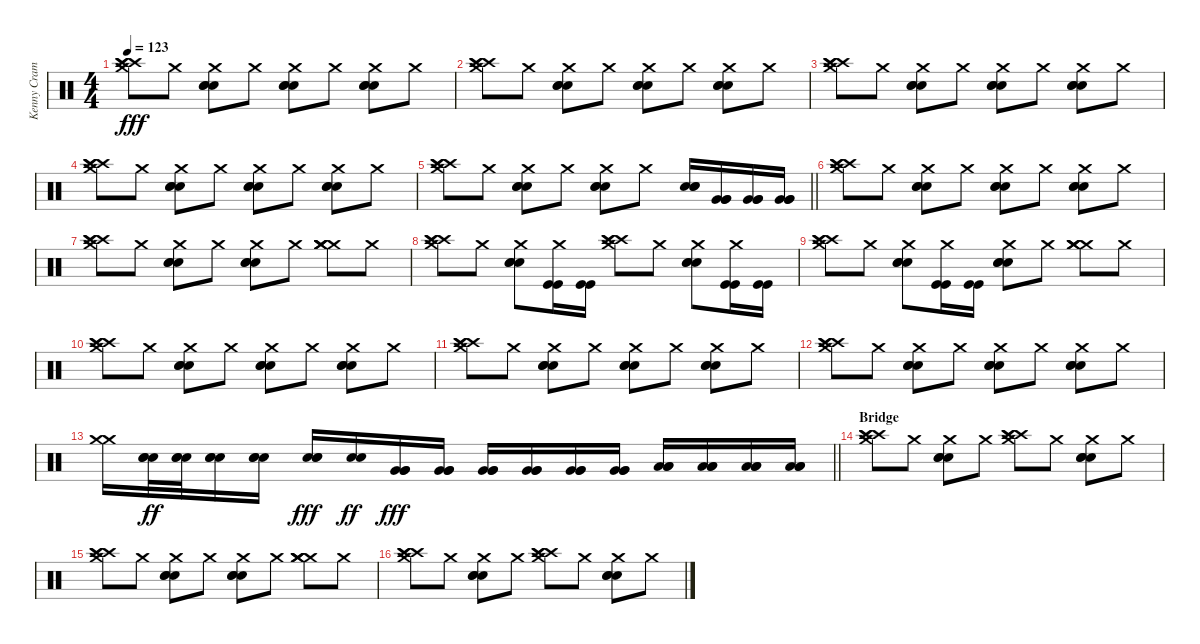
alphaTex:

\track ("Kenny Cramme - Drums" "Kenny Cram") {instrument percussion}
\staff {score}
\articulation defaults
\ts (4 4)
\tempo 123
\clef neutral
\ks c
("Crash medium (hit)" "Crash high (hit)" "Crash high (hit)" "Crash high (hit)").8{dy fff} "Crash medium (hit)".8 ("Crash medium (hit)" "Snare (hit) 2" "Snare (hit) 2" "Snare (hit) 2").8 "Crash medium (hit)".8 ("Crash medium (hit)" "Snare (hit) 2" "Snare (hit) 2" "Snare (hit) 2").8 "Crash medium (hit)".8 ("Crash medium (hit)" "Snare (hit) 2" "Snare (hit) 2" "Snare (hit) 2").8 "Crash medium (hit)".8 |
("Crash medium (hit)" "Crash high (hit)" "Crash high (hit)" "Crash high (hit)").8 "Crash medium (hit)".8 ("Crash medium (hit)" "Snare (hit) 2" "Snare (hit) 2" "Snare (hit) 2").8 "Crash medium (hit)".8 ("Crash medium (hit)" "Snare (hit) 2" "Snare (hit) 2" "Snare (hit) 2").8 "Crash medium (hit)".8 ("Crash medium (hit)" "Snare (hit) 2" "Snare (hit) 2" "Snare (hit) 2").8 "Crash medium (hit)".8 |
("Crash medium (hit)" "Crash high (hit)" "Crash high (hit)" "Crash high (hit)").8 "Crash medium (hit)".8 ("Crash medium (hit)" "Snare (hit) 2" "Snare (hit) 2" "Snare (hit) 2").8 "Crash medium (hit)".8 ("Crash medium (hit)" "Snare (hit) 2" "Snare (hit) 2" "Snare (hit) 2").8 "Crash medium (hit)".8 ("Crash medium (hit)" "Snare (hit) 2" "Snare (hit) 2" "Snare (hit) 2").8 "Crash medium (hit)".8 |
("Crash medium (hit)" "Crash high (hit)" "Crash high (hit)" "Crash high (hit)").8 "Crash medium (hit)".8 ("Crash medium (hit)" "Snare (hit) 2" "Snare (hit) 2" "Snare (hit) 2").8 "Crash medium (hit)".8 ("Crash medium (hit)" "Snare (hit) 2" "Snare (hit) 2" "Snare (hit) 2").8 "Crash medium (hit)".8 ("Crash medium (hit)" "Snare (hit) 2" "Snare (hit) 2" "Snare (hit) 2").8 "Crash medium (hit)".8 |
\barLineRight lightlight
("Crash medium (hit)" "Crash high (hit)" "Crash high (hit)" "Crash high (hit)").8 "Crash medium (hit)".8 ("Crash medium (hit)" "Snare (hit) 2" "Snare (hit) 2" "Snare (hit) 2").8 "Crash medium (hit)".8 ("Crash medium (hit)" "Snare (hit) 2" "Snare (hit) 2" "Snare (hit) 2").8 "Crash medium (hit)".8 ("Snare (hit) 2" "Snare (hit) 2" "Snare (hit) 2").16 ("Very Low Tom (hit)" "Very Low Tom (hit)" "Very Low Tom (hit)").16 ("Very Low Tom (hit)" "Very Low Tom (hit)" "Very Low Tom (hit)").16 ("Very Low Tom (hit)" "Very Low Tom (hit)" "Very Low Tom (hit)").16 |
("Crash medium (hit)" "Crash high (hit)" "Crash high (hit)" "Crash high (hit)").8 "Crash medium (hit)".8 ("Crash medium (hit)" "Snare (hit) 2" "Snare (hit) 2" "Snare (hit) 2").8 "Crash medium (hit)".8 ("Crash medium (hit)" "Snare (hit) 2" "Snare (hit) 2" "Snare (hit) 2").8 "Crash medium (hit)".8 ("Crash medium (hit)" "Snare (hit) 2" "Snare (hit) 2" "Snare (hit) 2").8 "Crash medium (hit)".8 |
("Crash medium (hit)" "Crash high (hit)" "Crash high (hit)" "Crash high (hit)").8 "Crash medium (hit)".8 ("Crash medium (hit)" "Snare (hit) 2" "Snare (hit) 2" "Snare (hit) 2").8 "Crash medium (hit)".8 ("Crash medium (hit)" "Snare (hit) 2" "Snare (hit) 2" "Snare (hit) 2").8 "Crash medium (hit)".8 ("Crash medium (hit)" "Crash medium (hit)" "Crash medium (hit)" "Crash medium (hit)").8 "Crash medium (hit)".8 |
("Crash medium (hit)" "Crash high (hit)" "Crash high (hit)" "Crash high (hit)").8 "Crash medium (hit)".8 ("Crash medium (hit)" "Snare (hit) 2" "Snare (hit) 2" "Snare (hit) 2").8 ("Crash medium (hit)" "Kick (hit)" "Kick (hit)").16 ("Kick (hit)" "Kick (hit)").16 ("Crash medium (hit)" "Crash high (hit)" "Crash high (hit)" "Crash high (hit)").8 "Crash medium (hit)".8 ("Crash medium (hit)" "Snare (hit) 2" "Snare (hit) 2" "Snare (hit) 2").8 ("Crash medium (hit)" "Kick (hit)" "Kick (hit)").16 ("Kick (hit)" "Kick (hit)").16 |
("Crash medium (hit)" "Crash high (hit)" "Crash high (hit)" "Crash high (hit)").8 "Crash medium (hit)".8 ("Crash medium (hit)" "Snare (hit) 2" "Snare (hit) 2" "Snare (hit) 2").8 ("Crash medium (hit)" "Kick (hit)" "Kick (hit)").16 ("Kick (hit)" "Kick (hit)").16 ("Crash medium (hit)" "Snare (hit) 2" "Snare (hit) 2" "Snare (hit) 2").8 "Crash medium (hit)".8 ("Crash medium (hit)" "Crash medium (hit)" "Crash medium (hit)" "Crash medium (hit)").8 "Crash medium (hit)".8 |
("Crash medium (hit)" "Crash high (hit)" "Crash high (hit)" "Crash high (hit)").8 "Crash medium (hit)".8 ("Crash medium (hit)" "Snare (hit) 2" "Snare (hit) 2" "Snare (hit) 2").8 "Crash medium (hit)".8 ("Crash medium (hit)" "Snare (hit) 2" "Snare (hit) 2" "Snare (hit) 2").8 "Crash medium (hit)".8 ("Crash medium (hit)" "Snare (hit) 2" "Snare (hit) 2" "Snare (hit) 2").8 "Crash medium (hit)".8 |
("Crash medium (hit)" "Crash high (hit)" "Crash high (hit)" "Crash high (hit)").8 "Crash medium (hit)".8 ("Crash medium (hit)" "Snare (hit) 2" "Snare (hit) 2" "Snare (hit) 2").8 "Crash medium (hit)".8 ("Crash medium (hit)" "Snare (hit) 2" "Snare (hit) 2" "Snare (hit) 2").8 "Crash medium (hit)".8 ("Crash medium (hit)" "Snare (hit) 2" "Snare (hit) 2" "Snare (hit) 2").8 "Crash medium (hit)".8 |
("Crash medium (hit)" "Crash high (hit)" "Crash high (hit)" "Crash high (hit)").8 "Crash medium (hit)".8 ("Crash medium (hit)" "Snare (hit) 2" "Snare (hit) 2" "Snare (hit) 2").8 "Crash medium (hit)".8 ("Crash medium (hit)" "Snare (hit) 2" "Snare (hit) 2" "Snare (hit) 2").8 "Crash medium (hit)".8 ("Crash medium (hit)" "Snare (hit) 2" "Snare (hit) 2" "Snare (hit) 2").8 "Crash medium (hit)".8 |
\barLineRight lightlight
("Crash medium (hit)" "Crash medium (hit)").16 ("Snare (hit) 2" "Snare (hit) 2" "Snare (hit) 2").32{dy ff} ("Snare (hit) 2" "Snare (hit) 2" "Snare (hit) 2").32 ("Snare (hit) 2" "Snare (hit) 2" "Snare (hit) 2").16 ("Snare (hit) 2" "Snare (hit) 2" "Snare (hit) 2").16 ("Snare (hit) 2" "Snare (hit) 2" "Snare (hit) 2").16{dy fff} ("Snare (hit) 2" "Snare (hit) 2").16{dy ff} ("Very Low Tom (hit)" "Very Low Tom (hit)" "Very Low Tom (hit)").16{dy fff} ("Very Low Tom (hit)" "Very Low Tom (hit)" "Very Low Tom (hit)").16 ("Very Low Tom (hit)" "Very Low Tom (hit)" "Very Low Tom (hit)").16 ("Very Low Tom (hit)" "Very Low Tom (hit)" "Very Low Tom (hit)").16 ("Very Low Tom (hit)" "Very Low Tom (hit)" "Very Low Tom (hit)").16 ("Very Low Tom (hit)" "Very Low Tom (hit)" "Very Low Tom (hit)").16 ("Low Floor Tom (hit)" "Low Floor Tom (hit)" "Low Floor Tom (hit)").16 ("Low Floor Tom (hit)" "Low Floor Tom (hit)" "Low Floor Tom (hit)").16 ("Low Floor Tom (hit)" "Low Floor Tom (hit)" "Low Floor Tom (hit)").16 ("Low Floor Tom (hit)" "Low Floor Tom (hit)" "Low Floor Tom (hit)").16 |
\section ("" "Bridge")
("Crash medium (hit)" "Crash high (hit)" "Crash high (hit)" "Crash high (hit)").8 "Crash medium (hit)".8 ("Crash medium (hit)" "Snare (hit) 2" "Snare (hit) 2" "Snare (hit) 2").8 "Crash medium (hit)".8 ("Crash medium (hit)" "Crash high (hit)" "Crash high (hit)" "Crash high (hit)").8 "Crash medium (hit)".8 ("Crash medium (hit)" "Snare (hit) 2" "Snare (hit) 2" "Snare (hit) 2").8 "Crash medium (hit)".8 |
("Crash medium (hit)" "Crash high (hit)" "Crash high (hit)" "Crash high (hit)").8 "Crash medium (hit)".8 ("Crash medium (hit)" "Snare (hit) 2" "Snare (hit) 2" "Snare (hit) 2").8 "Crash medium (hit)".8 ("Crash medium (hit)" "Snare (hit) 2" "Snare (hit) 2" "Snare (hit) 2").8 "Crash medium (hit)".8 ("Crash medium (hit)" "Crash medium (hit)" "Crash medium (hit)" "Crash medium (hit)").8 "Crash medium (hit)".8 |
("Crash medium (hit)" "Crash high (hit)" "Crash high (hit)" "Crash high (hit)").8 "Crash medium (hit)".8 ("Crash medium (hit)" "Snare (hit) 2" "Snare (hit) 2" "Snare (hit) 2").8 "Crash medium (hit)".8 ("Crash medium (hit)" "Crash high (hit)" "Crash high (hit)" "Crash high (hit)").8 "Crash medium (hit)".8 ("Crash medium (hit)" "Snare (hit) 2" "Snare (hit) 2" "Snare (hit) 2").8 "Crash medium (hit)".8
